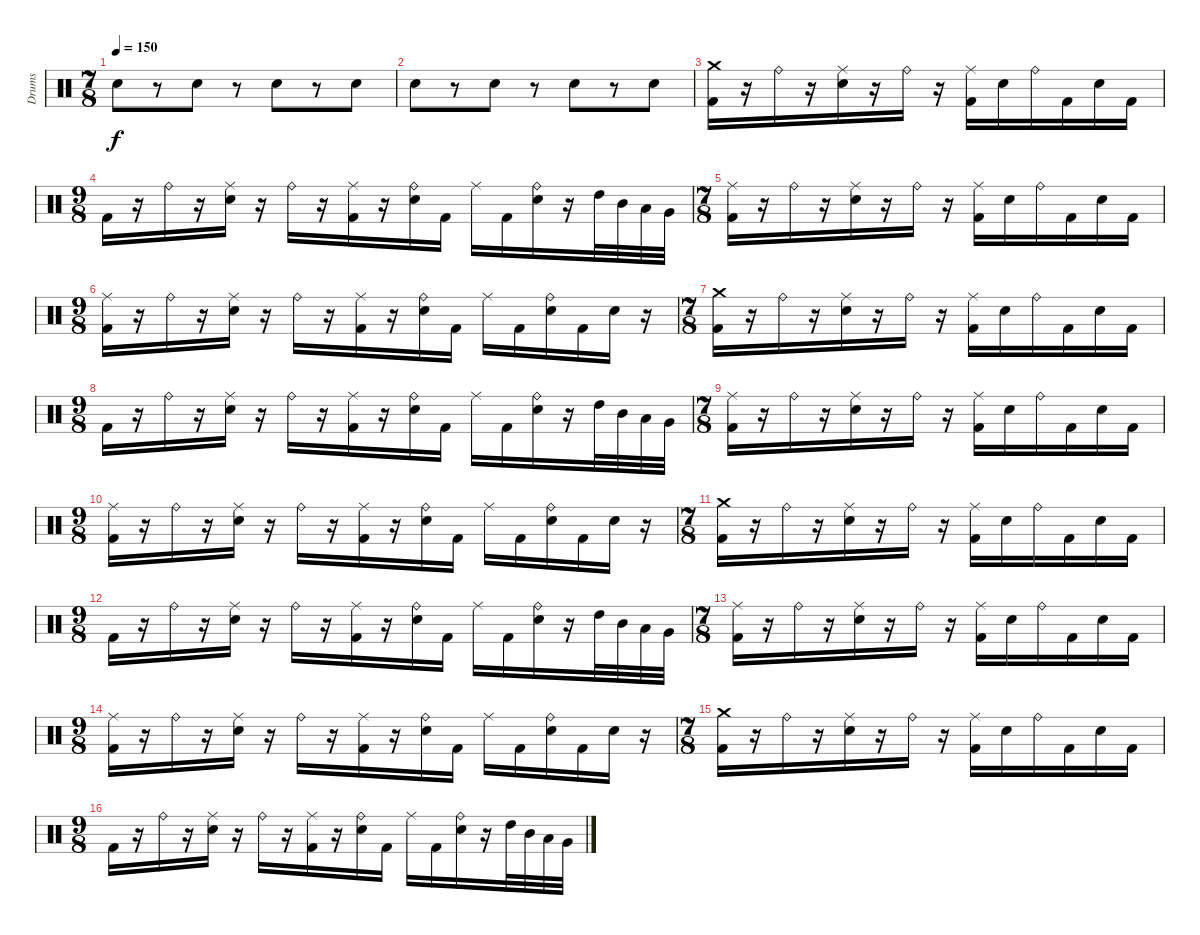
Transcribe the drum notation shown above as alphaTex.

\track ("Drums" "Drums") {instrument percussion}
\staff {score}
\articulation defaults
\ts (7 8)
\tempo 150
\clef neutral
\ks c "Electric Snare (hit)".8{dy f}
r.8 "Electric Snare (hit)".8 r.8 "Electric Snare (hit)".8 r.8 "Electric Snare (hit)".8 |
"Electric Snare (hit)".8 r.8 "Electric Snare (hit)".8 r.8 "Electric Snare (hit)".8 r.8 "Electric Snare (hit)".8 |
("Crash medium (hit)" "Kick (hit) 2").16 r.16 "Ride (bell)".16 r.16 ("Ride (middle)" "Electric Snare (hit)").16 r.16 "Ride (bell)".16 r.16 ("Ride (middle)" "Kick (hit) 2").16 "Electric Snare (hit)".16 "Ride (bell)".16 "Kick (hit) 2".16 "Electric Snare (hit)".16 "Kick (hit) 2".16 |
\ts (9 8)
"Kick (hit) 2".16 r.16 "Ride (bell)".16 r.16 ("Ride (middle)" "Electric Snare (hit)").16 r.16 "Ride (bell)".16 r.16 ("Ride (middle)" "Kick (hit) 2").16 r.16 ("Ride (bell)" "Electric Snare (hit)").16 "Kick (hit) 2".16 "Ride (middle)".16 "Kick (hit) 2".16 ("Ride (bell)" "Electric Snare (hit)").16 r.16 "High Tom (hit)".32 "Mid Tom (hit)".32 "Low Tom (hit)".32 "Very Low Tom (hit)".32 |
\ts (7 8)
("Ride (middle)" "Kick (hit) 2").16 r.16 "Ride (bell)".16 r.16 ("Ride (middle)" "Electric Snare (hit)").16 r.16 "Ride (bell)".16 r.16 ("Ride (middle)" "Kick (hit) 2").16 "Electric Snare (hit)".16 "Ride (bell)".16 "Kick (hit) 2".16 "Electric Snare (hit)".16 "Kick (hit) 2".16 |
\ts (9 8)
("Ride (middle)" "Kick (hit) 2").16 r.16 "Ride (bell)".16 r.16 ("Ride (middle)" "Electric Snare (hit)").16 r.16 "Ride (bell)".16 r.16 ("Ride (middle)" "Kick (hit) 2").16 r.16 ("Ride (bell)" "Electric Snare (hit)").16 "Kick (hit) 2".16 "Ride (middle)".16 "Kick (hit) 2".16 ("Ride (bell)" "Electric Snare (hit)").16 "Kick (hit) 2".16 "Electric Snare (hit)".16 r.16 |
\ts (7 8)
("Crash medium (hit)" "Kick (hit) 2").16 r.16 "Ride (bell)".16 r.16 ("Ride (middle)" "Electric Snare (hit)").16 r.16 "Ride (bell)".16 r.16 ("Ride (middle)" "Kick (hit) 2").16 "Electric Snare (hit)".16 "Ride (bell)".16 "Kick (hit) 2".16 "Electric Snare (hit)".16 "Kick (hit) 2".16 |
\ts (9 8)
"Kick (hit) 2".16 r.16 "Ride (bell)".16 r.16 ("Ride (middle)" "Electric Snare (hit)").16 r.16 "Ride (bell)".16 r.16 ("Ride (middle)" "Kick (hit) 2").16 r.16 ("Ride (bell)" "Electric Snare (hit)").16 "Kick (hit) 2".16 "Ride (middle)".16 "Kick (hit) 2".16 ("Ride (bell)" "Electric Snare (hit)").16 r.16 "High Tom (hit)".32 "Mid Tom (hit)".32 "Low Tom (hit)".32 "Very Low Tom (hit)".32 |
\ts (7 8)
("Ride (middle)" "Kick (hit) 2").16 r.16 "Ride (bell)".16 r.16 ("Ride (middle)" "Electric Snare (hit)").16 r.16 "Ride (bell)".16 r.16 ("Ride (middle)" "Kick (hit) 2").16 "Electric Snare (hit)".16 "Ride (bell)".16 "Kick (hit) 2".16 "Electric Snare (hit)".16 "Kick (hit) 2".16 |
\ts (9 8)
("Ride (middle)" "Kick (hit) 2").16 r.16 "Ride (bell)".16 r.16 ("Ride (middle)" "Electric Snare (hit)").16 r.16 "Ride (bell)".16 r.16 ("Ride (middle)" "Kick (hit) 2").16 r.16 ("Ride (bell)" "Electric Snare (hit)").16 "Kick (hit) 2".16 "Ride (middle)".16 "Kick (hit) 2".16 ("Ride (bell)" "Electric Snare (hit)").16 "Kick (hit) 2".16 "Electric Snare (hit)".16 r.16 |
\ts (7 8)
("Crash medium (hit)" "Kick (hit) 2").16 r.16 "Ride (bell)".16 r.16 ("Ride (middle)" "Electric Snare (hit)").16 r.16 "Ride (bell)".16 r.16 ("Ride (middle)" "Kick (hit) 2").16 "Electric Snare (hit)".16 "Ride (bell)".16 "Kick (hit) 2".16 "Electric Snare (hit)".16 "Kick (hit) 2".16 |
\ts (9 8)
"Kick (hit) 2".16 r.16 "Ride (bell)".16 r.16 ("Ride (middle)" "Electric Snare (hit)").16 r.16 "Ride (bell)".16 r.16 ("Ride (middle)" "Kick (hit) 2").16 r.16 ("Ride (bell)" "Electric Snare (hit)").16 "Kick (hit) 2".16 "Ride (middle)".16 "Kick (hit) 2".16 ("Ride (bell)" "Electric Snare (hit)").16 r.16 "High Tom (hit)".32 "Mid Tom (hit)".32 "Low Tom (hit)".32 "Very Low Tom (hit)".32 |
\ts (7 8)
("Ride (middle)" "Kick (hit) 2").16 r.16 "Ride (bell)".16 r.16 ("Ride (middle)" "Electric Snare (hit)").16 r.16 "Ride (bell)".16 r.16 ("Ride (middle)" "Kick (hit) 2").16 "Electric Snare (hit)".16 "Ride (bell)".16 "Kick (hit) 2".16 "Electric Snare (hit)".16 "Kick (hit) 2".16 |
\ts (9 8)
("Ride (middle)" "Kick (hit) 2").16 r.16 "Ride (bell)".16 r.16 ("Ride (middle)" "Electric Snare (hit)").16 r.16 "Ride (bell)".16 r.16 ("Ride (middle)" "Kick (hit) 2").16 r.16 ("Ride (bell)" "Electric Snare (hit)").16 "Kick (hit) 2".16 "Ride (middle)".16 "Kick (hit) 2".16 ("Ride (bell)" "Electric Snare (hit)").16 "Kick (hit) 2".16 "Electric Snare (hit)".16 r.16 |
\ts (7 8)
("Crash medium (hit)" "Kick (hit) 2").16 r.16 "Ride (bell)".16 r.16 ("Ride (middle)" "Electric Snare (hit)").16 r.16 "Ride (bell)".16 r.16 ("Ride (middle)" "Kick (hit) 2").16 "Electric Snare (hit)".16 "Ride (bell)".16 "Kick (hit) 2".16 "Electric Snare (hit)".16 "Kick (hit) 2".16 |
\ts (9 8)
"Kick (hit) 2".16 r.16 "Ride (bell)".16 r.16 ("Ride (middle)" "Electric Snare (hit)").16 r.16 "Ride (bell)".16 r.16 ("Ride (middle)" "Kick (hit) 2").16 r.16 ("Ride (bell)" "Electric Snare (hit)").16 "Kick (hit) 2".16 "Ride (middle)".16 "Kick (hit) 2".16 ("Ride (bell)" "Electric Snare (hit)").16 r.16 "High Tom (hit)".32 "Mid Tom (hit)".32 "Low Tom (hit)".32 "Very Low Tom (hit)".32
